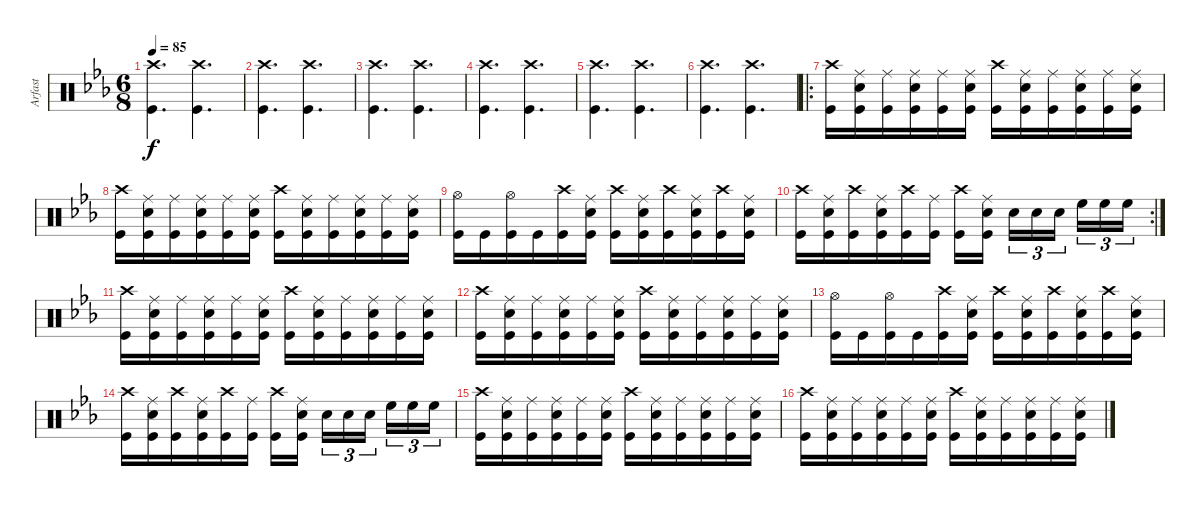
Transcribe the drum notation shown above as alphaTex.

\track ("Arfast" "Arfast") {instrument percussion}
\staff {score}
\articulation defaults
\ts (6 8)
\tempo 85
\clef neutral
\ks cminor
("Crash high (hit)" "Kick (hit)").4{d dy f} ("Crash high (hit)" "Kick (hit)").4{d} |
("Crash high (hit)" "Kick (hit)").4{d} ("Crash high (hit)" "Kick (hit)").4{d} |
("Crash high (hit)" "Kick (hit)").4{d} ("Crash high (hit)" "Kick (hit)").4{d} |
("Crash high (hit)" "Kick (hit)").4{d} ("Crash high (hit)" "Kick (hit)").4{d} |
("Crash high (hit)" "Kick (hit)").4{d} ("Crash high (hit)" "Kick (hit)").4{d} |
("Crash high (hit)" "Kick (hit)").4{d} ("Crash high (hit)" "Kick (hit)").4{d} |
\ro
("Crash high (hit)" "Kick (hit)").16 ("Ride (middle)" "Snare (hit) 2" "Kick (hit)").16 ("Ride (middle)" "Kick (hit)").16 ("Ride (middle)" "Snare (hit) 2" "Kick (hit)").16 ("Ride (middle)" "Kick (hit)").16 ("Ride (middle)" "Snare (hit) 2" "Kick (hit)").16 ("Crash high (hit)" "Kick (hit)").16 ("Ride (middle)" "Snare (hit) 2" "Kick (hit)").16 ("Ride (middle)" "Kick (hit)").16 ("Ride (middle)" "Snare (hit) 2" "Kick (hit)").16 ("Ride (middle)" "Kick (hit)").16 ("Ride (middle)" "Snare (hit) 2" "Kick (hit)").16 |
("Crash high (hit)" "Kick (hit)").16 ("Ride (middle)" "Snare (hit) 2" "Kick (hit)").16 ("Ride (middle)" "Kick (hit)").16 ("Ride (middle)" "Snare (hit) 2" "Kick (hit)").16 ("Ride (middle)" "Kick (hit)").16 ("Ride (middle)" "Snare (hit) 2" "Kick (hit)").16 ("Crash high (hit)" "Kick (hit)").16 ("Ride (middle)" "Snare (hit) 2" "Kick (hit)").16 ("Ride (middle)" "Kick (hit)").16 ("Ride (middle)" "Snare (hit) 2" "Kick (hit)").16 ("Ride (middle)" "Kick (hit)").16 ("Ride (middle)" "Snare (hit) 2" "Kick (hit)").16 |
("Hi-Hat (open)" "Kick (hit)").16 "Kick (hit)".16 ("Hi-Hat (open)" "Kick (hit)").16 "Kick (hit)".16 ("Crash high (hit)" "Kick (hit)").16 ("Ride (middle)" "Snare (hit) 2" "Kick (hit)").16 ("Crash high (hit)" "Kick (hit)").16 ("Ride (middle)" "Snare (hit) 2" "Kick (hit)").16 ("Crash high (hit)" "Kick (hit)").16 ("Ride (middle)" "Snare (hit) 2" "Kick (hit)").16 ("Crash high (hit)" "Kick (hit)").16 ("Ride (middle)" "Snare (hit) 2" "Kick (hit)").16 |
\rc 2
("Crash high (hit)" "Kick (hit)").16 ("Ride (middle)" "Snare (hit) 2" "Kick (hit)").16 ("Crash high (hit)" "Kick (hit)").16 ("Ride (middle)" "Snare (hit) 2" "Kick (hit)").16 ("Crash high (hit)" "Kick (hit)").16 ("Ride (middle)" "Kick (hit)").16 ("Crash high (hit)" "Kick (hit)").16 ("Ride (middle)" "Snare (hit) 2" "Kick (hit)").16{beam splitsecondary} "Snare (hit) 2".16{tu (3 2)} "Snare (hit) 2".16{tu (3 2)} "Snare (hit) 2".16{tu (3 2) beam splitsecondary} "High Floor Tom (hit)".16{tu (3 2)} "High Floor Tom (hit)".16{tu (3 2)} "High Floor Tom (hit)".16{tu (3 2)} |
("Crash high (hit)" "Kick (hit)").16 ("Ride (middle)" "Snare (hit) 2" "Kick (hit)").16 ("Ride (middle)" "Kick (hit)").16 ("Ride (middle)" "Snare (hit) 2" "Kick (hit)").16 ("Ride (middle)" "Kick (hit)").16 ("Ride (middle)" "Snare (hit) 2" "Kick (hit)").16 ("Crash high (hit)" "Kick (hit)").16 ("Ride (middle)" "Snare (hit) 2" "Kick (hit)").16 ("Ride (middle)" "Kick (hit)").16 ("Ride (middle)" "Snare (hit) 2" "Kick (hit)").16 ("Ride (middle)" "Kick (hit)").16 ("Ride (middle)" "Snare (hit) 2" "Kick (hit)").16 |
("Crash high (hit)" "Kick (hit)").16 ("Ride (middle)" "Snare (hit) 2" "Kick (hit)").16 ("Ride (middle)" "Kick (hit)").16 ("Ride (middle)" "Snare (hit) 2" "Kick (hit)").16 ("Ride (middle)" "Kick (hit)").16 ("Ride (middle)" "Snare (hit) 2" "Kick (hit)").16 ("Crash high (hit)" "Kick (hit)").16 ("Ride (middle)" "Snare (hit) 2" "Kick (hit)").16 ("Ride (middle)" "Kick (hit)").16 ("Ride (middle)" "Snare (hit) 2" "Kick (hit)").16 ("Ride (middle)" "Kick (hit)").16 ("Ride (middle)" "Snare (hit) 2" "Kick (hit)").16 |
("Hi-Hat (open)" "Kick (hit)").16 "Kick (hit)".16 ("Hi-Hat (open)" "Kick (hit)").16 "Kick (hit)".16 ("Crash high (hit)" "Kick (hit)").16 ("Ride (middle)" "Snare (hit) 2" "Kick (hit)").16 ("Crash high (hit)" "Kick (hit)").16 ("Ride (middle)" "Snare (hit) 2" "Kick (hit)").16 ("Crash high (hit)" "Kick (hit)").16 ("Ride (middle)" "Snare (hit) 2" "Kick (hit)").16 ("Crash high (hit)" "Kick (hit)").16 ("Ride (middle)" "Snare (hit) 2" "Kick (hit)").16 |
("Crash high (hit)" "Kick (hit)").16 ("Ride (middle)" "Snare (hit) 2" "Kick (hit)").16 ("Crash high (hit)" "Kick (hit)").16 ("Ride (middle)" "Snare (hit) 2" "Kick (hit)").16 ("Crash high (hit)" "Kick (hit)").16 ("Ride (middle)" "Kick (hit)").16 ("Crash high (hit)" "Kick (hit)").16 ("Ride (middle)" "Snare (hit) 2" "Kick (hit)").16{beam splitsecondary} "Snare (hit) 2".16{tu (3 2)} "Snare (hit) 2".16{tu (3 2)} "Snare (hit) 2".16{tu (3 2) beam splitsecondary} "High Floor Tom (hit)".16{tu (3 2)} "High Floor Tom (hit)".16{tu (3 2)} "High Floor Tom (hit)".16{tu (3 2)} |
("Crash high (hit)" "Kick (hit)").16 ("Ride (middle)" "Snare (hit) 2" "Kick (hit)").16 ("Ride (middle)" "Kick (hit)").16 ("Ride (middle)" "Snare (hit) 2" "Kick (hit)").16 ("Ride (middle)" "Kick (hit)").16 ("Ride (middle)" "Snare (hit) 2" "Kick (hit)").16 ("Crash high (hit)" "Kick (hit)").16 ("Ride (middle)" "Snare (hit) 2" "Kick (hit)").16 ("Ride (middle)" "Kick (hit)").16 ("Ride (middle)" "Snare (hit) 2" "Kick (hit)").16 ("Ride (middle)" "Kick (hit)").16 ("Ride (middle)" "Snare (hit) 2" "Kick (hit)").16 |
("Crash high (hit)" "Kick (hit)").16 ("Ride (middle)" "Snare (hit) 2" "Kick (hit)").16 ("Ride (middle)" "Kick (hit)").16 ("Ride (middle)" "Snare (hit) 2" "Kick (hit)").16 ("Ride (middle)" "Kick (hit)").16 ("Ride (middle)" "Snare (hit) 2" "Kick (hit)").16 ("Crash high (hit)" "Kick (hit)").16 ("Ride (middle)" "Snare (hit) 2" "Kick (hit)").16 ("Ride (middle)" "Kick (hit)").16 ("Ride (middle)" "Snare (hit) 2" "Kick (hit)").16 ("Ride (middle)" "Kick (hit)").16 ("Ride (middle)" "Snare (hit) 2" "Kick (hit)").16
